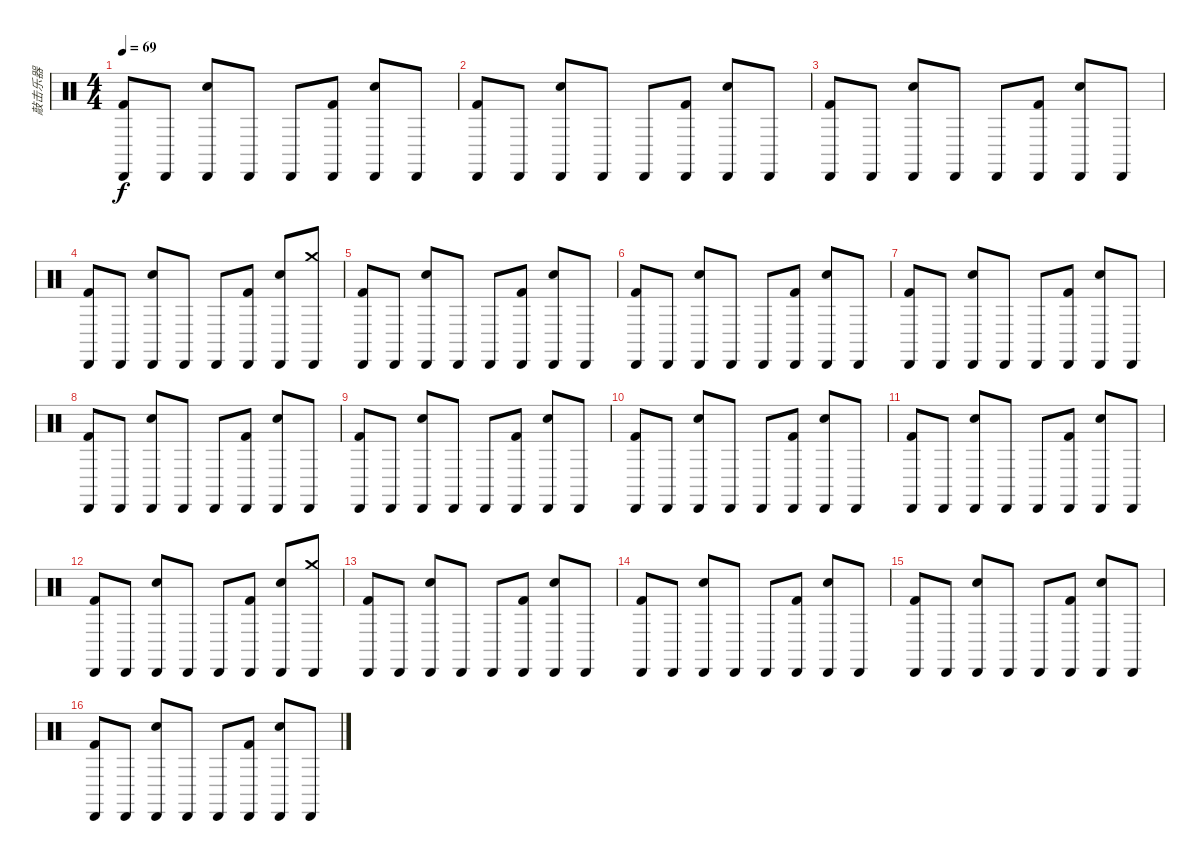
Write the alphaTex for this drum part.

\track ("敲击乐器" "敲击乐器") {instrument percussion}
\staff {score}
\articulation defaults
\ts (4 4)
\tempo 69
\clef neutral
\ks c
("Cabasa (hit)" "Kick (hit) 2").8{dy f} "Cabasa (hit)".8 ("Cabasa (hit)" "Electric Snare (hit)").8 "Cabasa (hit)".8 "Cabasa (hit)".8 ("Cabasa (hit)" "Kick (hit) 2").8 ("Cabasa (hit)" "Electric Snare (hit)").8 "Cabasa (hit)".8 |
("Cabasa (hit)" "Kick (hit) 2").8 "Cabasa (hit)".8 ("Cabasa (hit)" "Electric Snare (hit)").8 "Cabasa (hit)".8 "Cabasa (hit)".8 ("Cabasa (hit)" "Kick (hit) 2").8 ("Cabasa (hit)" "Electric Snare (hit)").8 "Cabasa (hit)".8 |
("Cabasa (hit)" "Kick (hit) 2").8 "Cabasa (hit)".8 ("Cabasa (hit)" "Electric Snare (hit)").8 "Cabasa (hit)".8 "Cabasa (hit)".8 ("Cabasa (hit)" "Kick (hit) 2").8 ("Cabasa (hit)" "Electric Snare (hit)").8 "Cabasa (hit)".8 |
("Cabasa (hit)" "Kick (hit) 2").8 "Cabasa (hit)".8 ("Cabasa (hit)" "Electric Snare (hit)").8 "Cabasa (hit)".8 "Cabasa (hit)".8 ("Cabasa (hit)" "Kick (hit) 2").8 ("Cabasa (hit)" "Electric Snare (hit)").8 ("Cabasa (hit)" "Crash medium (hit)").8 |
("Cabasa (hit)" "Kick (hit) 2").8 "Cabasa (hit)".8 ("Cabasa (hit)" "Electric Snare (hit)").8 "Cabasa (hit)".8 "Cabasa (hit)".8 ("Cabasa (hit)" "Kick (hit) 2").8 ("Cabasa (hit)" "Electric Snare (hit)").8 "Cabasa (hit)".8 |
("Cabasa (hit)" "Kick (hit) 2").8 "Cabasa (hit)".8 ("Cabasa (hit)" "Electric Snare (hit)").8 "Cabasa (hit)".8 "Cabasa (hit)".8 ("Cabasa (hit)" "Kick (hit) 2").8 ("Cabasa (hit)" "Electric Snare (hit)").8 "Cabasa (hit)".8 |
("Cabasa (hit)" "Kick (hit) 2").8 "Cabasa (hit)".8 ("Cabasa (hit)" "Electric Snare (hit)").8 "Cabasa (hit)".8 "Cabasa (hit)".8 ("Cabasa (hit)" "Kick (hit) 2").8 ("Cabasa (hit)" "Electric Snare (hit)").8 "Cabasa (hit)".8 |
("Cabasa (hit)" "Kick (hit) 2").8 "Cabasa (hit)".8 ("Cabasa (hit)" "Electric Snare (hit)").8 "Cabasa (hit)".8 "Cabasa (hit)".8 ("Cabasa (hit)" "Kick (hit) 2").8 ("Cabasa (hit)" "Electric Snare (hit)").8 "Cabasa (hit)".8 |
("Cabasa (hit)" "Kick (hit) 2").8 "Cabasa (hit)".8 ("Cabasa (hit)" "Electric Snare (hit)").8 "Cabasa (hit)".8 "Cabasa (hit)".8 ("Cabasa (hit)" "Kick (hit) 2").8 ("Cabasa (hit)" "Electric Snare (hit)").8 "Cabasa (hit)".8 |
("Cabasa (hit)" "Kick (hit) 2").8 "Cabasa (hit)".8 ("Cabasa (hit)" "Electric Snare (hit)").8 "Cabasa (hit)".8 "Cabasa (hit)".8 ("Cabasa (hit)" "Kick (hit) 2").8 ("Cabasa (hit)" "Electric Snare (hit)").8 "Cabasa (hit)".8 |
("Cabasa (hit)" "Kick (hit) 2").8 "Cabasa (hit)".8 ("Cabasa (hit)" "Electric Snare (hit)").8 "Cabasa (hit)".8 "Cabasa (hit)".8 ("Cabasa (hit)" "Kick (hit) 2").8 ("Cabasa (hit)" "Electric Snare (hit)").8 "Cabasa (hit)".8 |
("Cabasa (hit)" "Kick (hit) 2").8 "Cabasa (hit)".8 ("Cabasa (hit)" "Electric Snare (hit)").8 "Cabasa (hit)".8 "Cabasa (hit)".8 ("Cabasa (hit)" "Kick (hit) 2").8 ("Cabasa (hit)" "Electric Snare (hit)").8 ("Cabasa (hit)" "Crash medium (hit)").8 |
("Cabasa (hit)" "Kick (hit) 2").8 "Cabasa (hit)".8 ("Cabasa (hit)" "Electric Snare (hit)").8 "Cabasa (hit)".8 "Cabasa (hit)".8 ("Cabasa (hit)" "Kick (hit) 2").8 ("Cabasa (hit)" "Electric Snare (hit)").8 "Cabasa (hit)".8 |
("Cabasa (hit)" "Kick (hit) 2").8 "Cabasa (hit)".8 ("Cabasa (hit)" "Electric Snare (hit)").8 "Cabasa (hit)".8 "Cabasa (hit)".8 ("Cabasa (hit)" "Kick (hit) 2").8 ("Cabasa (hit)" "Electric Snare (hit)").8 "Cabasa (hit)".8 |
("Cabasa (hit)" "Kick (hit) 2").8 "Cabasa (hit)".8 ("Cabasa (hit)" "Electric Snare (hit)").8 "Cabasa (hit)".8 "Cabasa (hit)".8 ("Cabasa (hit)" "Kick (hit) 2").8 ("Cabasa (hit)" "Electric Snare (hit)").8 "Cabasa (hit)".8 |
("Cabasa (hit)" "Kick (hit) 2").8 "Cabasa (hit)".8 ("Cabasa (hit)" "Electric Snare (hit)").8 "Cabasa (hit)".8 "Cabasa (hit)".8 ("Cabasa (hit)" "Kick (hit) 2").8 ("Cabasa (hit)" "Electric Snare (hit)").8 "Cabasa (hit)".8
